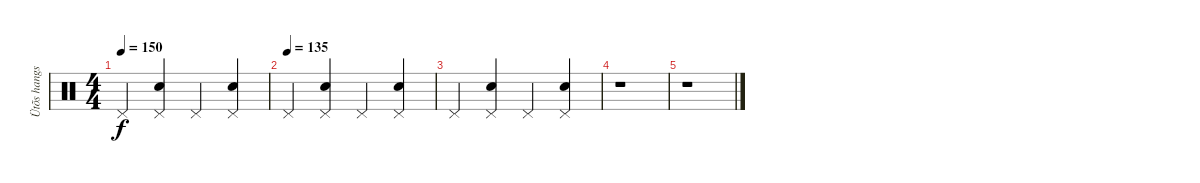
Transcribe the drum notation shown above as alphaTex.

\track ("Ütõs hangszer" "Ütõs hangs") {instrument percussion}
\staff {score}
\articulation defaults
\ts (4 4)
\tempo 150
\clef neutral
\ks c "Pedal Hi-Hat (hit)".4{dy f}
("Pedal Hi-Hat (hit)" "Snare (hit) 2").4 "Pedal Hi-Hat (hit)".4 ("Pedal Hi-Hat (hit)" "Snare (hit) 2").4 |
\tempo (135)
"Pedal Hi-Hat (hit)".4 ("Pedal Hi-Hat (hit)" "Snare (hit) 2").4 "Pedal Hi-Hat (hit)".4 ("Pedal Hi-Hat (hit)" "Snare (hit) 2").4 |
"Pedal Hi-Hat (hit)".4 ("Pedal Hi-Hat (hit)" "Snare (hit) 2").4 "Pedal Hi-Hat (hit)".4 ("Pedal Hi-Hat (hit)" "Snare (hit) 2").4 |
r.1 |
r.1
